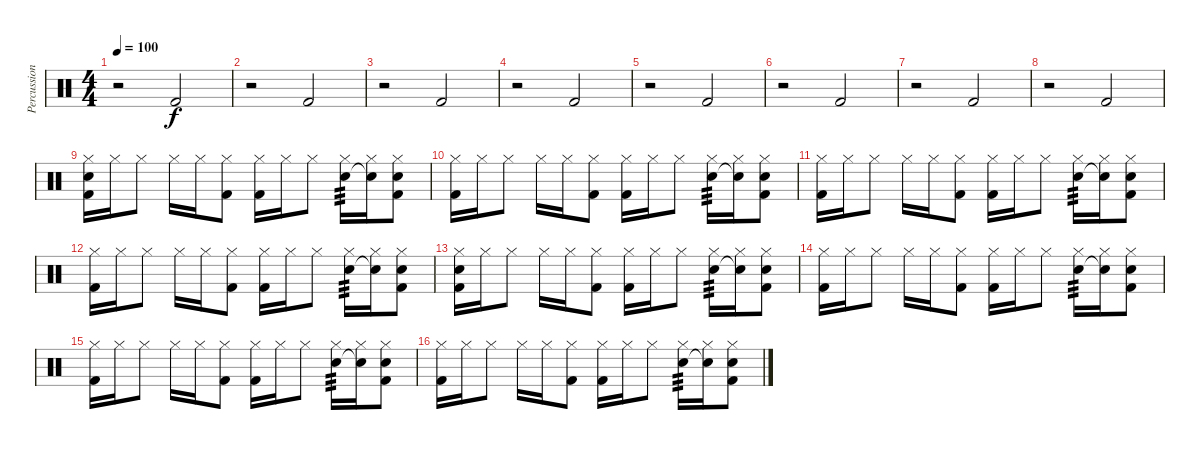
\track ("Percussion" "Percussion") {instrument percussion}
\staff {score}
\articulation defaults
\ts (4 4)
\tempo 100
\clef neutral
\ks c
r.2{dy f} "Kick (hit) 2".2 |
r.2 "Kick (hit) 2".2 |
r.2 "Kick (hit) 2".2 |
r.2 "Kick (hit) 2".2 |
r.2 "Kick (hit) 2".2 |
r.2 "Kick (hit) 2".2 |
r.2 "Kick (hit) 2".2 |
r.2 "Kick (hit) 2".2 |
("Hi-Hat (closed)" "Snare (hit) 2" "Kick (hit) 2").16 "Hi-Hat (closed)".16 "Hi-Hat (closed)".8 "Hi-Hat (closed)".16 "Hi-Hat (closed)".16 ("Hi-Hat (closed)" "Kick (hit) 2").8 ("Hi-Hat (closed)" "Kick (hit) 2").16 "Hi-Hat (closed)".16 "Hi-Hat (closed)".8 ("Hi-Hat (closed)" "Snare (hit) 2").16{tp 3} ("Hi-Hat (closed)" "Snare (hit) 2"{t}).16 ("Hi-Hat (closed)" "Snare (hit) 2" "Kick (hit) 2").8 |
("Hi-Hat (closed)" "Kick (hit) 2").16 "Hi-Hat (closed)".16 "Hi-Hat (closed)".8 "Hi-Hat (closed)".16 "Hi-Hat (closed)".16 ("Hi-Hat (closed)" "Kick (hit) 2").8 ("Hi-Hat (closed)" "Kick (hit) 2").16 "Hi-Hat (closed)".16 "Hi-Hat (closed)".8 ("Hi-Hat (closed)" "Snare (hit) 2").16{tp 3} ("Hi-Hat (closed)" "Snare (hit) 2"{t}).16 ("Hi-Hat (closed)" "Snare (hit) 2" "Kick (hit) 2").8 |
("Hi-Hat (closed)" "Kick (hit) 2").16 "Hi-Hat (closed)".16 "Hi-Hat (closed)".8 "Hi-Hat (closed)".16 "Hi-Hat (closed)".16 ("Hi-Hat (closed)" "Kick (hit) 2").8 ("Hi-Hat (closed)" "Kick (hit) 2").16 "Hi-Hat (closed)".16 "Hi-Hat (closed)".8 ("Hi-Hat (closed)" "Snare (hit) 2").16{tp 3} ("Hi-Hat (closed)" "Snare (hit) 2"{t}).16 ("Hi-Hat (closed)" "Snare (hit) 2" "Kick (hit) 2").8 |
("Hi-Hat (closed)" "Kick (hit) 2").16 "Hi-Hat (closed)".16 "Hi-Hat (closed)".8 "Hi-Hat (closed)".16 "Hi-Hat (closed)".16 ("Hi-Hat (closed)" "Kick (hit) 2").8 ("Hi-Hat (closed)" "Kick (hit) 2").16 "Hi-Hat (closed)".16 "Hi-Hat (closed)".8 ("Hi-Hat (closed)" "Snare (hit) 2").16{tp 3} ("Hi-Hat (closed)" "Snare (hit) 2"{t}).16 ("Hi-Hat (closed)" "Snare (hit) 2" "Kick (hit) 2").8 |
("Hi-Hat (closed)" "Snare (hit) 2" "Kick (hit) 2").16 "Hi-Hat (closed)".16 "Hi-Hat (closed)".8 "Hi-Hat (closed)".16 "Hi-Hat (closed)".16 ("Hi-Hat (closed)" "Kick (hit) 2").8 ("Hi-Hat (closed)" "Kick (hit) 2").16 "Hi-Hat (closed)".16 "Hi-Hat (closed)".8 ("Hi-Hat (closed)" "Snare (hit) 2").16{tp 3} ("Hi-Hat (closed)" "Snare (hit) 2"{t}).16 ("Hi-Hat (closed)" "Snare (hit) 2" "Kick (hit) 2").8 |
("Hi-Hat (closed)" "Kick (hit) 2").16 "Hi-Hat (closed)".16 "Hi-Hat (closed)".8 "Hi-Hat (closed)".16 "Hi-Hat (closed)".16 ("Hi-Hat (closed)" "Kick (hit) 2").8 ("Hi-Hat (closed)" "Kick (hit) 2").16 "Hi-Hat (closed)".16 "Hi-Hat (closed)".8 ("Hi-Hat (closed)" "Snare (hit) 2").16{tp 3} ("Hi-Hat (closed)" "Snare (hit) 2"{t}).16 ("Hi-Hat (closed)" "Snare (hit) 2" "Kick (hit) 2").8 |
("Hi-Hat (closed)" "Kick (hit) 2").16 "Hi-Hat (closed)".16 "Hi-Hat (closed)".8 "Hi-Hat (closed)".16 "Hi-Hat (closed)".16 ("Hi-Hat (closed)" "Kick (hit) 2").8 ("Hi-Hat (closed)" "Kick (hit) 2").16 "Hi-Hat (closed)".16 "Hi-Hat (closed)".8 ("Hi-Hat (closed)" "Snare (hit) 2").16{tp 3} ("Hi-Hat (closed)" "Snare (hit) 2"{t}).16 ("Hi-Hat (closed)" "Snare (hit) 2" "Kick (hit) 2").8 |
("Hi-Hat (closed)" "Kick (hit) 2").16 "Hi-Hat (closed)".16 "Hi-Hat (closed)".8 "Hi-Hat (closed)".16 "Hi-Hat (closed)".16 ("Hi-Hat (closed)" "Kick (hit) 2").8 ("Hi-Hat (closed)" "Kick (hit) 2").16 "Hi-Hat (closed)".16 "Hi-Hat (closed)".8 ("Hi-Hat (closed)" "Snare (hit) 2").16{tp 3} ("Hi-Hat (closed)" "Snare (hit) 2"{t}).16 ("Hi-Hat (closed)" "Snare (hit) 2" "Kick (hit) 2").8
